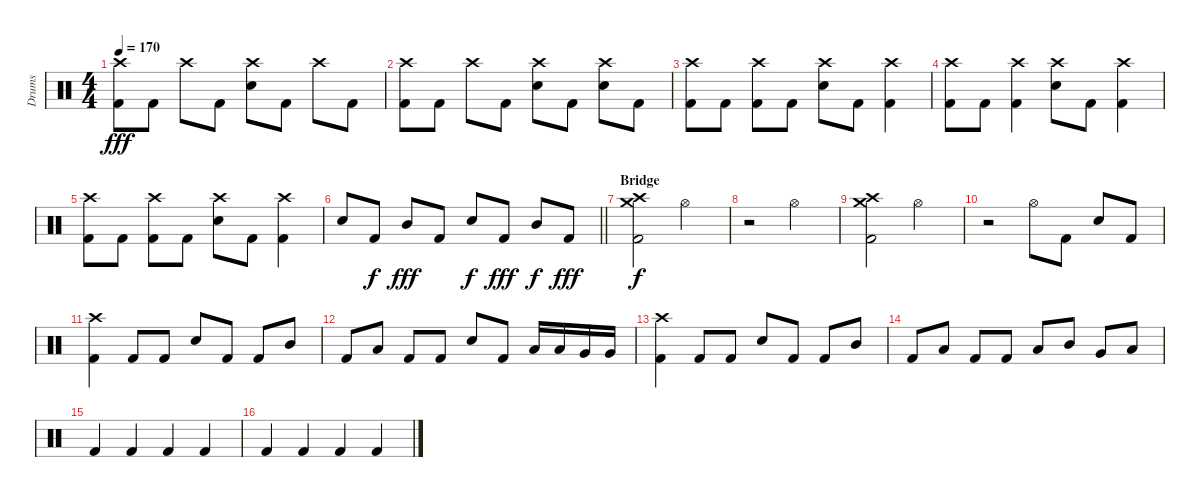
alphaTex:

\track ("Drums" "Drums") {instrument percussion}
\staff {score}
\articulation defaults
\ts (4 4)
\tempo 170
\clef neutral
\ks c
("Crash high (hit)" "Kick (hit) 2").8{dy fff} "Kick (hit) 2".8 "Crash high (hit)".8 "Kick (hit) 2".8 ("Crash high (hit)" "Electric Snare (hit)").8 "Kick (hit) 2".8 "Crash high (hit)".8 "Kick (hit) 2".8 |
("Crash high (hit)" "Kick (hit) 2").8 "Kick (hit) 2".8 "Crash high (hit)".8 "Kick (hit) 2".8 ("Crash high (hit)" "Electric Snare (hit)").8 "Kick (hit) 2".8 ("Crash high (hit)" "Electric Snare (hit)").8 "Kick (hit) 2".8 |
("Crash high (hit)" "Kick (hit) 2").8 "Kick (hit) 2".8 ("Crash high (hit)" "Kick (hit) 2").8 "Kick (hit) 2".8 ("Crash high (hit)" "Electric Snare (hit)").8 "Kick (hit) 2".8 ("Crash high (hit)" "Kick (hit) 2").4 |
("Crash high (hit)" "Kick (hit) 2").8 "Kick (hit) 2".8 ("Crash high (hit)" "Kick (hit) 2").4 ("Crash high (hit)" "Electric Snare (hit)").8 "Kick (hit) 2".8 ("Crash high (hit)" "Kick (hit) 2").4 |
("Crash high (hit)" "Kick (hit) 2").8 "Kick (hit) 2".8 ("Crash high (hit)" "Kick (hit) 2").8 "Kick (hit) 2".8 ("Crash high (hit)" "Electric Snare (hit)").8 "Kick (hit) 2".8 ("Crash high (hit)" "Kick (hit) 2").4 |
\barLineRight lightlight "Electric Snare (hit)".8 "Kick (hit) 2".8{dy f} "Mid Tom (hit)".8{dy fff} "Kick (hit) 2".8 "Electric Snare (hit)".8{dy f} "Kick (hit) 2".8{dy fff} "Mid Tom (hit)".8{dy f} "Kick (hit) 2".8{dy fff}
|
\section ("" "Bridge")
("Crash high (hit)" "Crash medium (hit)" "Kick (hit) 2").2{dy f} "Hi-Hat (open)".2 |
r.2 "Hi-Hat (open)".2 |
("Crash high (hit)" "Crash medium (hit)" "Kick (hit) 2").2 "Hi-Hat (open)".2 |
r.2 "Hi-Hat (open)".8 "Kick (hit) 2".8 "Electric Snare (hit)".8 "Kick (hit) 2".8 |
("Crash high (hit)" "Kick (hit) 2").4 "Kick (hit) 2".8 "Kick (hit) 2".8 "Electric Snare (hit)".8 "Kick (hit) 2".8 "Kick (hit) 2".8 "Mid Tom (hit)".8 |
"Kick (hit) 2".8 "Low Tom (hit)".8 "Kick (hit) 2".8 "Kick (hit) 2".8 "Electric Snare (hit)".8 "Kick (hit) 2".8 "Low Tom (hit)".16 "Low Tom (hit)".16 "Very Low Tom (hit)".16 "Very Low Tom (hit)".16 |
("Crash high (hit)" "Kick (hit) 2").4 "Kick (hit) 2".8 "Kick (hit) 2".8 "Electric Snare (hit)".8 "Kick (hit) 2".8 "Kick (hit) 2".8 "Mid Tom (hit)".8 |
"Kick (hit) 2".8 "Low Tom (hit)".8 "Kick (hit) 2".8 "Kick (hit) 2".8 "Low Tom (hit)".8 "Mid Tom (hit)".8 "Very Low Tom (hit)".8 "Low Tom (hit)".8 |
"Kick (hit) 2".4 "Kick (hit) 2".4 "Kick (hit) 2".4 "Kick (hit) 2".4 |
"Kick (hit) 2".4 "Kick (hit) 2".4 "Kick (hit) 2".4 "Kick (hit) 2".4
